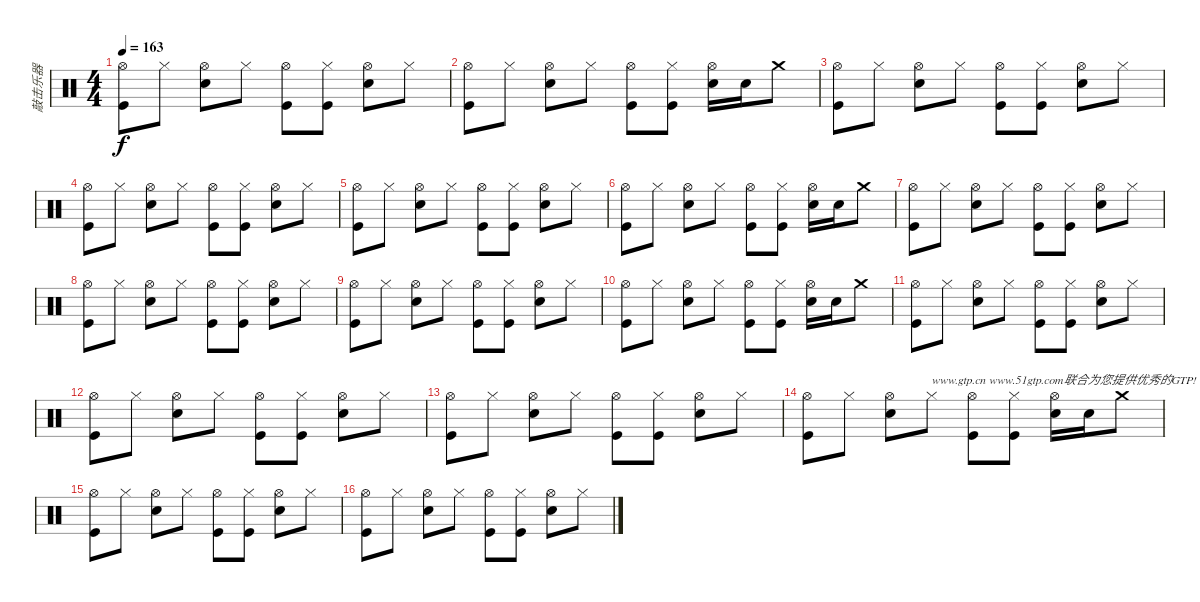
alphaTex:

\track ("敲击乐器" "敲击乐器") {instrument percussion}
\staff {score}
\articulation defaults
\ts (4 4)
\tempo 163
\clef neutral
\ks c
("Hi-Hat (open)" "Kick (hit)").8{dy f} "Hi-Hat (closed)".8 ("Hi-Hat (open)" "Snare (hit) 2").8 "Hi-Hat (closed)".8 ("Hi-Hat (open)" "Kick (hit)").8 ("Hi-Hat (closed)" "Kick (hit)").8 ("Hi-Hat (open)" "Snare (hit) 2").8 "Hi-Hat (closed)".8 |
("Hi-Hat (open)" "Kick (hit)").8 "Hi-Hat (closed)".8 ("Hi-Hat (open)" "Snare (hit) 2").8 "Hi-Hat (closed)".8 ("Hi-Hat (open)" "Kick (hit)").8 ("Hi-Hat (closed)" "Kick (hit)").8 ("Hi-Hat (open)" "Snare (hit) 2").16 "Snare (hit) 2".16 "Crash medium (hit)".8 |
("Hi-Hat (open)" "Kick (hit)").8 "Hi-Hat (closed)".8 ("Hi-Hat (open)" "Snare (hit) 2").8 "Hi-Hat (closed)".8 ("Hi-Hat (open)" "Kick (hit)").8 ("Hi-Hat (closed)" "Kick (hit)").8 ("Hi-Hat (open)" "Snare (hit) 2").8 "Hi-Hat (closed)".8 |
("Hi-Hat (open)" "Kick (hit)").8 "Hi-Hat (closed)".8 ("Hi-Hat (open)" "Snare (hit) 2").8 "Hi-Hat (closed)".8 ("Hi-Hat (open)" "Kick (hit)").8 ("Hi-Hat (closed)" "Kick (hit)").8 ("Hi-Hat (open)" "Snare (hit) 2").8 "Hi-Hat (closed)".8 |
("Hi-Hat (open)" "Kick (hit)").8 "Hi-Hat (closed)".8 ("Hi-Hat (open)" "Snare (hit) 2").8 "Hi-Hat (closed)".8 ("Hi-Hat (open)" "Kick (hit)").8 ("Hi-Hat (closed)" "Kick (hit)").8 ("Hi-Hat (open)" "Snare (hit) 2").8 "Hi-Hat (closed)".8 |
("Hi-Hat (open)" "Kick (hit)").8 "Hi-Hat (closed)".8 ("Hi-Hat (open)" "Snare (hit) 2").8 "Hi-Hat (closed)".8 ("Hi-Hat (open)" "Kick (hit)").8 ("Hi-Hat (closed)" "Kick (hit)").8 ("Hi-Hat (open)" "Snare (hit) 2").16 "Snare (hit) 2".16 "Crash medium (hit)".8 |
("Hi-Hat (open)" "Kick (hit)").8 "Hi-Hat (closed)".8 ("Hi-Hat (open)" "Snare (hit) 2").8 "Hi-Hat (closed)".8 ("Hi-Hat (open)" "Kick (hit)").8 ("Hi-Hat (closed)" "Kick (hit)").8 ("Hi-Hat (open)" "Snare (hit) 2").8 "Hi-Hat (closed)".8 |
("Hi-Hat (open)" "Kick (hit)").8 "Hi-Hat (closed)".8 ("Hi-Hat (open)" "Snare (hit) 2").8 "Hi-Hat (closed)".8 ("Hi-Hat (open)" "Kick (hit)").8 ("Hi-Hat (closed)" "Kick (hit)").8 ("Hi-Hat (open)" "Snare (hit) 2").8 "Hi-Hat (closed)".8 |
("Hi-Hat (open)" "Kick (hit)").8 "Hi-Hat (closed)".8 ("Hi-Hat (open)" "Snare (hit) 2").8 "Hi-Hat (closed)".8 ("Hi-Hat (open)" "Kick (hit)").8 ("Hi-Hat (closed)" "Kick (hit)").8 ("Hi-Hat (open)" "Snare (hit) 2").8 "Hi-Hat (closed)".8 |
("Hi-Hat (open)" "Kick (hit)").8 "Hi-Hat (closed)".8 ("Hi-Hat (open)" "Snare (hit) 2").8 "Hi-Hat (closed)".8 ("Hi-Hat (open)" "Kick (hit)").8 ("Hi-Hat (closed)" "Kick (hit)").8 ("Hi-Hat (open)" "Snare (hit) 2").16 "Snare (hit) 2".16 "Crash medium (hit)".8 |
("Hi-Hat (open)" "Kick (hit)").8 "Hi-Hat (closed)".8 ("Hi-Hat (open)" "Snare (hit) 2").8 "Hi-Hat (closed)".8 ("Hi-Hat (open)" "Kick (hit)").8 ("Hi-Hat (closed)" "Kick (hit)").8 ("Hi-Hat (open)" "Snare (hit) 2").8 "Hi-Hat (closed)".8 |
("Hi-Hat (open)" "Kick (hit)").8 "Hi-Hat (closed)".8 ("Hi-Hat (open)" "Snare (hit) 2").8 "Hi-Hat (closed)".8 ("Hi-Hat (open)" "Kick (hit)").8 ("Hi-Hat (closed)" "Kick (hit)").8 ("Hi-Hat (open)" "Snare (hit) 2").8 "Hi-Hat (closed)".8 |
("Hi-Hat (open)" "Kick (hit)").8 "Hi-Hat (closed)".8 ("Hi-Hat (open)" "Snare (hit) 2").8 "Hi-Hat (closed)".8 ("Hi-Hat (open)" "Kick (hit)").8 ("Hi-Hat (closed)" "Kick (hit)").8 ("Hi-Hat (open)" "Snare (hit) 2").8 "Hi-Hat (closed)".8 |
("Hi-Hat (open)" "Kick (hit)").8 "Hi-Hat (closed)".8 ("Hi-Hat (open)" "Snare (hit) 2").8 "Hi-Hat (closed)".8{txt "www.gtp.cn www.51gtp.com联合为您提供优秀的GTP!"} ("Hi-Hat (open)" "Kick (hit)").8 ("Hi-Hat (closed)" "Kick (hit)").8 ("Hi-Hat (open)" "Snare (hit) 2").16 "Snare (hit) 2".16 "Crash medium (hit)".8 |
("Hi-Hat (open)" "Kick (hit)").8 "Hi-Hat (closed)".8 ("Hi-Hat (open)" "Snare (hit) 2").8 "Hi-Hat (closed)".8 ("Hi-Hat (open)" "Kick (hit)").8 ("Hi-Hat (closed)" "Kick (hit)").8 ("Hi-Hat (open)" "Snare (hit) 2").8 "Hi-Hat (closed)".8 |
("Hi-Hat (open)" "Kick (hit)").8 "Hi-Hat (closed)".8 ("Hi-Hat (open)" "Snare (hit) 2").8 "Hi-Hat (closed)".8 ("Hi-Hat (open)" "Kick (hit)").8 ("Hi-Hat (closed)" "Kick (hit)").8 ("Hi-Hat (open)" "Snare (hit) 2").8 "Hi-Hat (closed)".8
